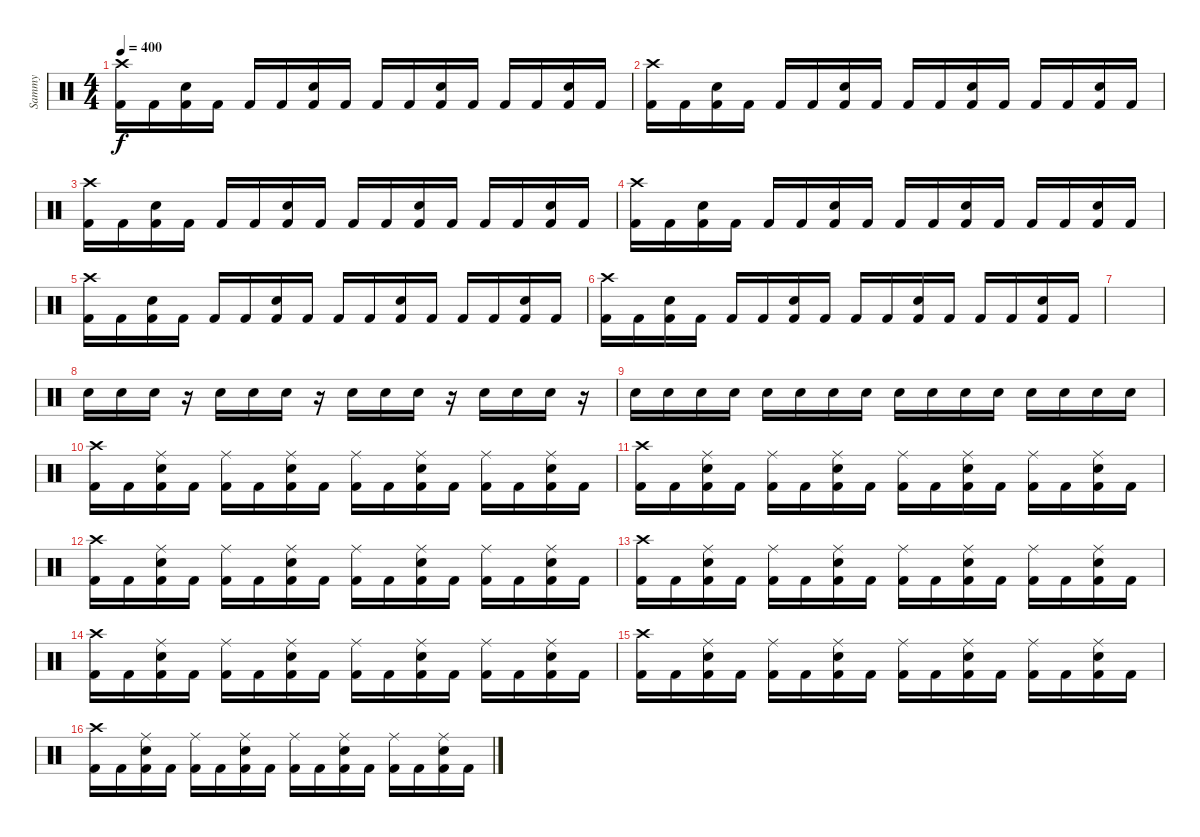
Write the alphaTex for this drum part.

\track ("Sammy" "Sammy") {instrument percussion}
\staff {score}
\articulation defaults
\ts (4 4)
\tempo 400
\clef neutral
\ks c
("Crash high (hit)" "Kick (hit) 2").16{dy f} "Kick (hit) 2".16 ("Electric Snare (hit)" "Kick (hit) 2").16 "Kick (hit) 2".16 "Kick (hit) 2".16 "Kick (hit) 2".16 ("Electric Snare (hit)" "Kick (hit) 2").16 "Kick (hit) 2".16 "Kick (hit) 2".16 "Kick (hit) 2".16 ("Electric Snare (hit)" "Kick (hit) 2").16 "Kick (hit) 2".16 "Kick (hit) 2".16 "Kick (hit) 2".16 ("Electric Snare (hit)" "Kick (hit) 2").16 "Kick (hit) 2".16 |
("Crash high (hit)" "Kick (hit) 2").16 "Kick (hit) 2".16 ("Electric Snare (hit)" "Kick (hit) 2").16 "Kick (hit) 2".16 "Kick (hit) 2".16 "Kick (hit) 2".16 ("Electric Snare (hit)" "Kick (hit) 2").16 "Kick (hit) 2".16 "Kick (hit) 2".16 "Kick (hit) 2".16 ("Electric Snare (hit)" "Kick (hit) 2").16 "Kick (hit) 2".16 "Kick (hit) 2".16 "Kick (hit) 2".16 ("Electric Snare (hit)" "Kick (hit) 2").16 "Kick (hit) 2".16 |
("Crash high (hit)" "Kick (hit) 2").16 "Kick (hit) 2".16 ("Electric Snare (hit)" "Kick (hit) 2").16 "Kick (hit) 2".16 "Kick (hit) 2".16 "Kick (hit) 2".16 ("Electric Snare (hit)" "Kick (hit) 2").16 "Kick (hit) 2".16 "Kick (hit) 2".16 "Kick (hit) 2".16 ("Electric Snare (hit)" "Kick (hit) 2").16 "Kick (hit) 2".16 "Kick (hit) 2".16 "Kick (hit) 2".16 ("Electric Snare (hit)" "Kick (hit) 2").16 "Kick (hit) 2".16 |
("Crash high (hit)" "Kick (hit) 2").16 "Kick (hit) 2".16 ("Electric Snare (hit)" "Kick (hit) 2").16 "Kick (hit) 2".16 "Kick (hit) 2".16 "Kick (hit) 2".16 ("Electric Snare (hit)" "Kick (hit) 2").16 "Kick (hit) 2".16 "Kick (hit) 2".16 "Kick (hit) 2".16 ("Electric Snare (hit)" "Kick (hit) 2").16 "Kick (hit) 2".16 "Kick (hit) 2".16 "Kick (hit) 2".16 ("Electric Snare (hit)" "Kick (hit) 2").16 "Kick (hit) 2".16 |
("Crash high (hit)" "Kick (hit) 2").16 "Kick (hit) 2".16 ("Electric Snare (hit)" "Kick (hit) 2").16 "Kick (hit) 2".16 "Kick (hit) 2".16 "Kick (hit) 2".16 ("Electric Snare (hit)" "Kick (hit) 2").16 "Kick (hit) 2".16 "Kick (hit) 2".16 "Kick (hit) 2".16 ("Electric Snare (hit)" "Kick (hit) 2").16 "Kick (hit) 2".16 "Kick (hit) 2".16 "Kick (hit) 2".16 ("Electric Snare (hit)" "Kick (hit) 2").16 "Kick (hit) 2".16 |
("Crash high (hit)" "Kick (hit) 2").16 "Kick (hit) 2".16 ("Electric Snare (hit)" "Kick (hit) 2").16 "Kick (hit) 2".16 "Kick (hit) 2".16 "Kick (hit) 2".16 ("Electric Snare (hit)" "Kick (hit) 2").16 "Kick (hit) 2".16 "Kick (hit) 2".16 "Kick (hit) 2".16 ("Electric Snare (hit)" "Kick (hit) 2").16 "Kick (hit) 2".16 "Kick (hit) 2".16 "Kick (hit) 2".16 ("Electric Snare (hit)" "Kick (hit) 2").16 "Kick (hit) 2".16 |
|
"Electric Snare (hit)".16 "Electric Snare (hit)".16 "Electric Snare (hit)".16 r.16 "Electric Snare (hit)".16 "Electric Snare (hit)".16 "Electric Snare (hit)".16 r.16 "Electric Snare (hit)".16 "Electric Snare (hit)".16 "Electric Snare (hit)".16 r.16 "Electric Snare (hit)".16 "Electric Snare (hit)".16 "Electric Snare (hit)".16 r.16 |
"Electric Snare (hit)".16 "Electric Snare (hit)".16 "Electric Snare (hit)".16 "Electric Snare (hit)".16 "Electric Snare (hit)".16 "Electric Snare (hit)".16 "Electric Snare (hit)".16 "Electric Snare (hit)".16 "Electric Snare (hit)".16 "Electric Snare (hit)".16 "Electric Snare (hit)".16 "Electric Snare (hit)".16 "Electric Snare (hit)".16 "Electric Snare (hit)".16 "Electric Snare (hit)".16 "Electric Snare (hit)".16 |
("Crash high (hit)" "Kick (hit) 2").16 "Kick (hit) 2".16 ("Ride (middle)" "Electric Snare (hit)" "Kick (hit) 2").16 "Kick (hit) 2".16 ("Ride (middle)" "Kick (hit) 2").16 "Kick (hit) 2".16 ("Ride (middle)" "Electric Snare (hit)" "Kick (hit) 2").16 "Kick (hit) 2".16 ("Ride (middle)" "Kick (hit) 2").16 "Kick (hit) 2".16 ("Ride (middle)" "Electric Snare (hit)" "Kick (hit) 2").16 "Kick (hit) 2".16 ("Ride (middle)" "Kick (hit) 2").16 "Kick (hit) 2".16 ("Ride (middle)" "Electric Snare (hit)" "Kick (hit) 2").16 "Kick (hit) 2".16 |
("Crash high (hit)" "Kick (hit) 2").16 "Kick (hit) 2".16 ("Ride (middle)" "Electric Snare (hit)" "Kick (hit) 2").16 "Kick (hit) 2".16 ("Ride (middle)" "Kick (hit) 2").16 "Kick (hit) 2".16 ("Ride (middle)" "Electric Snare (hit)" "Kick (hit) 2").16 "Kick (hit) 2".16 ("Ride (middle)" "Kick (hit) 2").16 "Kick (hit) 2".16 ("Ride (middle)" "Electric Snare (hit)" "Kick (hit) 2").16 "Kick (hit) 2".16 ("Ride (middle)" "Kick (hit) 2").16 "Kick (hit) 2".16 ("Ride (middle)" "Electric Snare (hit)" "Kick (hit) 2").16 "Kick (hit) 2".16 |
("Crash high (hit)" "Kick (hit) 2").16 "Kick (hit) 2".16 ("Ride (middle)" "Electric Snare (hit)" "Kick (hit) 2").16 "Kick (hit) 2".16 ("Ride (middle)" "Kick (hit) 2").16 "Kick (hit) 2".16 ("Ride (middle)" "Electric Snare (hit)" "Kick (hit) 2").16 "Kick (hit) 2".16 ("Ride (middle)" "Kick (hit) 2").16 "Kick (hit) 2".16 ("Ride (middle)" "Electric Snare (hit)" "Kick (hit) 2").16 "Kick (hit) 2".16 ("Ride (middle)" "Kick (hit) 2").16 "Kick (hit) 2".16 ("Ride (middle)" "Electric Snare (hit)" "Kick (hit) 2").16 "Kick (hit) 2".16 |
("Crash high (hit)" "Kick (hit) 2").16 "Kick (hit) 2".16 ("Ride (middle)" "Electric Snare (hit)" "Kick (hit) 2").16 "Kick (hit) 2".16 ("Ride (middle)" "Kick (hit) 2").16 "Kick (hit) 2".16 ("Ride (middle)" "Electric Snare (hit)" "Kick (hit) 2").16 "Kick (hit) 2".16 ("Ride (middle)" "Kick (hit) 2").16 "Kick (hit) 2".16 ("Ride (middle)" "Electric Snare (hit)" "Kick (hit) 2").16 "Kick (hit) 2".16 ("Ride (middle)" "Kick (hit) 2").16 "Kick (hit) 2".16 ("Ride (middle)" "Electric Snare (hit)" "Kick (hit) 2").16 "Kick (hit) 2".16 |
("Crash high (hit)" "Kick (hit) 2").16 "Kick (hit) 2".16 ("Ride (middle)" "Electric Snare (hit)" "Kick (hit) 2").16 "Kick (hit) 2".16 ("Ride (middle)" "Kick (hit) 2").16 "Kick (hit) 2".16 ("Ride (middle)" "Electric Snare (hit)" "Kick (hit) 2").16 "Kick (hit) 2".16 ("Ride (middle)" "Kick (hit) 2").16 "Kick (hit) 2".16 ("Ride (middle)" "Electric Snare (hit)" "Kick (hit) 2").16 "Kick (hit) 2".16 ("Ride (middle)" "Kick (hit) 2").16 "Kick (hit) 2".16 ("Ride (middle)" "Electric Snare (hit)" "Kick (hit) 2").16 "Kick (hit) 2".16 |
("Crash high (hit)" "Kick (hit) 2").16 "Kick (hit) 2".16 ("Ride (middle)" "Electric Snare (hit)" "Kick (hit) 2").16 "Kick (hit) 2".16 ("Ride (middle)" "Kick (hit) 2").16 "Kick (hit) 2".16 ("Ride (middle)" "Electric Snare (hit)" "Kick (hit) 2").16 "Kick (hit) 2".16 ("Ride (middle)" "Kick (hit) 2").16 "Kick (hit) 2".16 ("Ride (middle)" "Electric Snare (hit)" "Kick (hit) 2").16 "Kick (hit) 2".16 ("Ride (middle)" "Kick (hit) 2").16 "Kick (hit) 2".16 ("Ride (middle)" "Electric Snare (hit)" "Kick (hit) 2").16 "Kick (hit) 2".16 |
("Crash high (hit)" "Kick (hit) 2").16 "Kick (hit) 2".16 ("Ride (middle)" "Electric Snare (hit)" "Kick (hit) 2").16 "Kick (hit) 2".16 ("Ride (middle)" "Kick (hit) 2").16 "Kick (hit) 2".16 ("Ride (middle)" "Electric Snare (hit)" "Kick (hit) 2").16 "Kick (hit) 2".16 ("Ride (middle)" "Kick (hit) 2").16 "Kick (hit) 2".16 ("Ride (middle)" "Electric Snare (hit)" "Kick (hit) 2").16 "Kick (hit) 2".16 ("Ride (middle)" "Kick (hit) 2").16 "Kick (hit) 2".16 ("Ride (middle)" "Electric Snare (hit)" "Kick (hit) 2").16 "Kick (hit) 2".16
